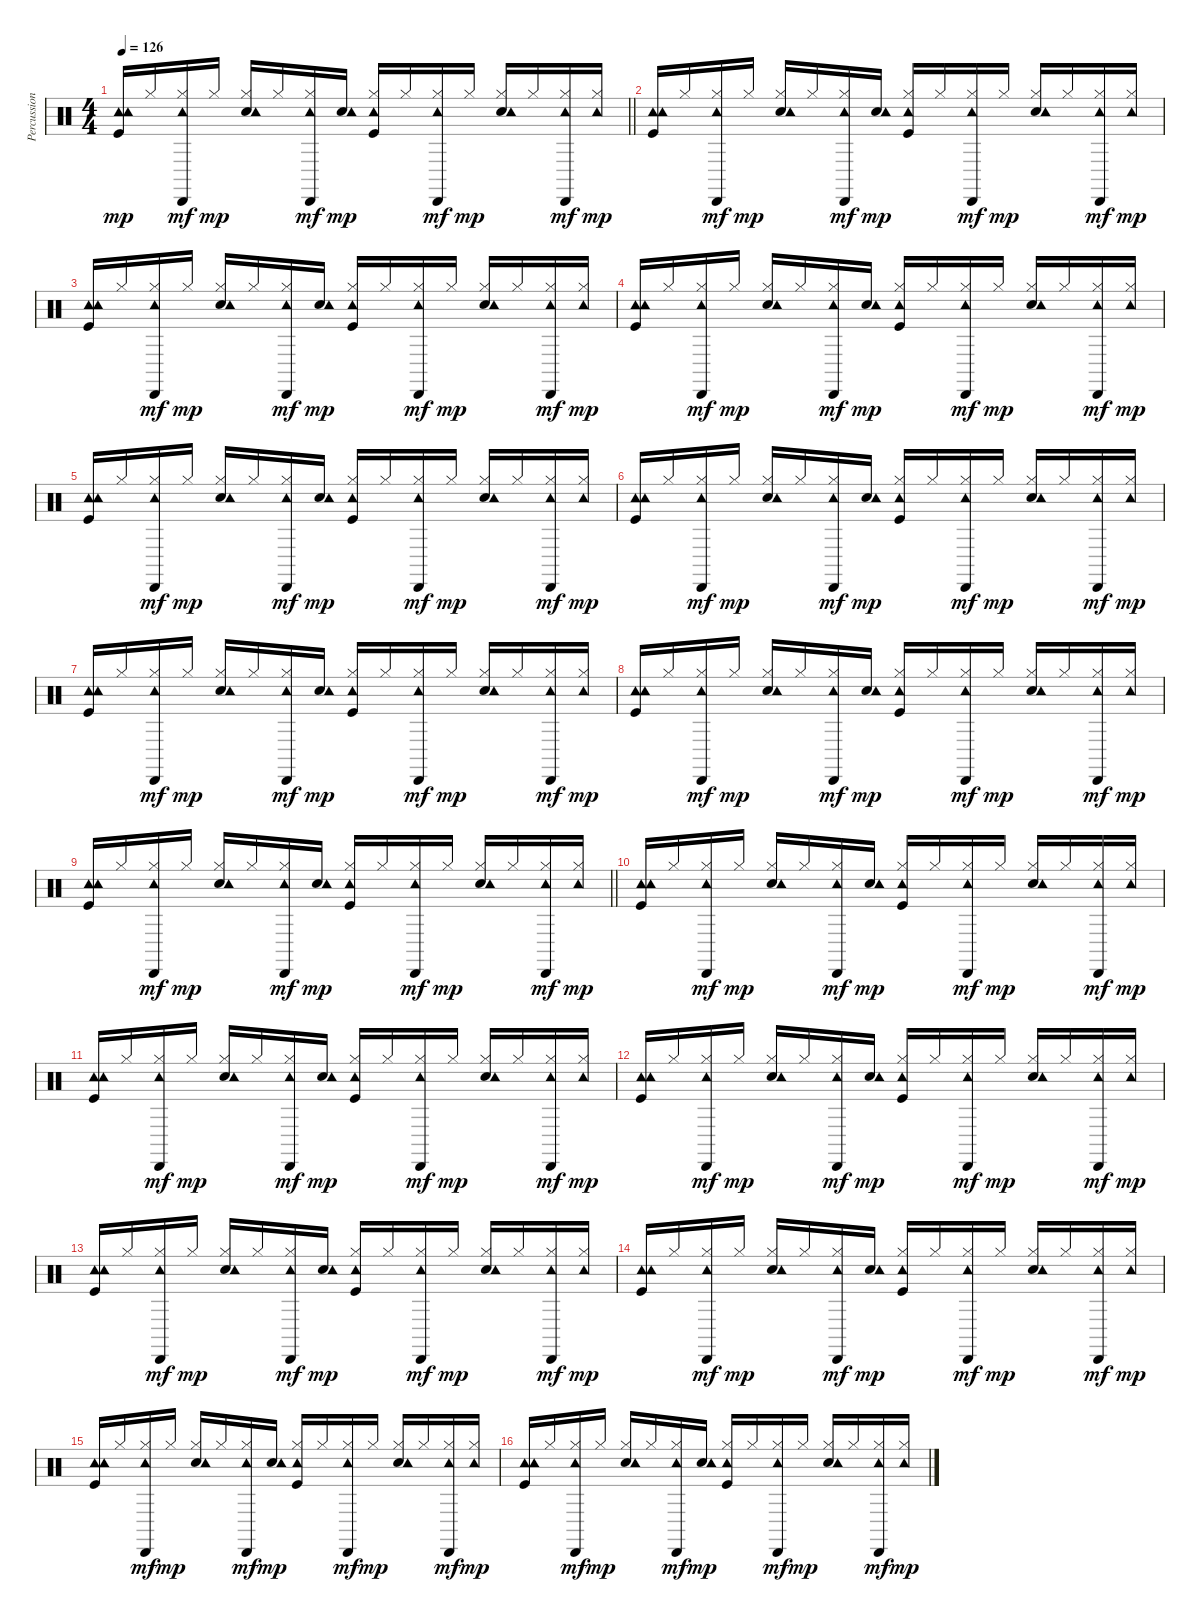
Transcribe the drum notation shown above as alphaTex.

\track ("Percussion" "Percussion") {instrument percussion}
\staff {score}
\articulation defaults
\ts (4 4)
\tempo 126
\clef neutral
\barLineRight lightlight
\ks c
("Kick (hit)" "Tambourine (hit)" "Tambourine (hit)").16{dy mp} "Hi-Hat (closed)".16 ("Hi-Hat (closed)" "Tambourine (hit)" "Cabasa (hit)").16{dy mf} "Hi-Hat (closed)".16{dy mp} ("Snare (hit) 2" "Hi-Hat (closed)" "Tambourine (hit)").16 "Hi-Hat (closed)".16 ("Hi-Hat (closed)" "Tambourine (hit)" "Cabasa (hit)").16{dy mf} ("Snare (hit) 2" "Tambourine (hit)").16{dy mp} ("Kick (hit)" "Hi-Hat (closed)" "Tambourine (hit)").16 "Hi-Hat (closed)".16 ("Hi-Hat (closed)" "Tambourine (hit)" "Cabasa (hit)").16{dy mf} "Hi-Hat (closed)".16{dy mp} ("Snare (hit) 2" "Hi-Hat (closed)" "Tambourine (hit)").16 "Hi-Hat (closed)".16 ("Hi-Hat (closed)" "Tambourine (hit)" "Cabasa (hit)").16{dy mf} ("Hi-Hat (closed)" "Tambourine (hit)").16{dy mp} |
("Kick (hit)" "Tambourine (hit)" "Tambourine (hit)").16 "Hi-Hat (closed)".16 ("Hi-Hat (closed)" "Tambourine (hit)" "Cabasa (hit)").16{dy mf} "Hi-Hat (closed)".16{dy mp} ("Snare (hit) 2" "Hi-Hat (closed)" "Tambourine (hit)").16 "Hi-Hat (closed)".16 ("Hi-Hat (closed)" "Tambourine (hit)" "Cabasa (hit)").16{dy mf} ("Snare (hit) 2" "Tambourine (hit)").16{dy mp} ("Kick (hit)" "Hi-Hat (closed)" "Tambourine (hit)").16 "Hi-Hat (closed)".16 ("Hi-Hat (closed)" "Tambourine (hit)" "Cabasa (hit)").16{dy mf} "Hi-Hat (closed)".16{dy mp} ("Snare (hit) 2" "Hi-Hat (closed)" "Tambourine (hit)").16 "Hi-Hat (closed)".16 ("Hi-Hat (closed)" "Tambourine (hit)" "Cabasa (hit)").16{dy mf} ("Hi-Hat (closed)" "Tambourine (hit)").16{dy mp} |
("Kick (hit)" "Tambourine (hit)" "Tambourine (hit)").16 "Hi-Hat (closed)".16 ("Hi-Hat (closed)" "Tambourine (hit)" "Cabasa (hit)").16{dy mf} "Hi-Hat (closed)".16{dy mp} ("Snare (hit) 2" "Hi-Hat (closed)" "Tambourine (hit)").16 "Hi-Hat (closed)".16 ("Hi-Hat (closed)" "Tambourine (hit)" "Cabasa (hit)").16{dy mf} ("Snare (hit) 2" "Tambourine (hit)").16{dy mp} ("Kick (hit)" "Hi-Hat (closed)" "Tambourine (hit)").16 "Hi-Hat (closed)".16 ("Hi-Hat (closed)" "Tambourine (hit)" "Cabasa (hit)").16{dy mf} "Hi-Hat (closed)".16{dy mp} ("Snare (hit) 2" "Hi-Hat (closed)" "Tambourine (hit)").16 "Hi-Hat (closed)".16 ("Hi-Hat (closed)" "Tambourine (hit)" "Cabasa (hit)").16{dy mf} ("Hi-Hat (closed)" "Tambourine (hit)").16{dy mp} |
("Kick (hit)" "Tambourine (hit)" "Tambourine (hit)").16 "Hi-Hat (closed)".16 ("Hi-Hat (closed)" "Tambourine (hit)" "Cabasa (hit)").16{dy mf} "Hi-Hat (closed)".16{dy mp} ("Snare (hit) 2" "Hi-Hat (closed)" "Tambourine (hit)").16 "Hi-Hat (closed)".16 ("Hi-Hat (closed)" "Tambourine (hit)" "Cabasa (hit)").16{dy mf} ("Snare (hit) 2" "Tambourine (hit)").16{dy mp} ("Kick (hit)" "Hi-Hat (closed)" "Tambourine (hit)").16 "Hi-Hat (closed)".16 ("Hi-Hat (closed)" "Tambourine (hit)" "Cabasa (hit)").16{dy mf} "Hi-Hat (closed)".16{dy mp} ("Snare (hit) 2" "Hi-Hat (closed)" "Tambourine (hit)").16 "Hi-Hat (closed)".16 ("Hi-Hat (closed)" "Tambourine (hit)" "Cabasa (hit)").16{dy mf} ("Hi-Hat (closed)" "Tambourine (hit)").16{dy mp} |
("Kick (hit)" "Tambourine (hit)" "Tambourine (hit)").16 "Hi-Hat (closed)".16 ("Hi-Hat (closed)" "Tambourine (hit)" "Cabasa (hit)").16{dy mf} "Hi-Hat (closed)".16{dy mp} ("Snare (hit) 2" "Hi-Hat (closed)" "Tambourine (hit)").16 "Hi-Hat (closed)".16 ("Hi-Hat (closed)" "Tambourine (hit)" "Cabasa (hit)").16{dy mf} ("Snare (hit) 2" "Tambourine (hit)").16{dy mp} ("Kick (hit)" "Hi-Hat (closed)" "Tambourine (hit)").16 "Hi-Hat (closed)".16 ("Hi-Hat (closed)" "Tambourine (hit)" "Cabasa (hit)").16{dy mf} "Hi-Hat (closed)".16{dy mp} ("Snare (hit) 2" "Hi-Hat (closed)" "Tambourine (hit)").16 "Hi-Hat (closed)".16 ("Hi-Hat (closed)" "Tambourine (hit)" "Cabasa (hit)").16{dy mf} ("Hi-Hat (closed)" "Tambourine (hit)").16{dy mp} |
("Kick (hit)" "Tambourine (hit)" "Tambourine (hit)").16 "Hi-Hat (closed)".16 ("Hi-Hat (closed)" "Tambourine (hit)" "Cabasa (hit)").16{dy mf} "Hi-Hat (closed)".16{dy mp} ("Snare (hit) 2" "Hi-Hat (closed)" "Tambourine (hit)").16 "Hi-Hat (closed)".16 ("Hi-Hat (closed)" "Tambourine (hit)" "Cabasa (hit)").16{dy mf} ("Snare (hit) 2" "Tambourine (hit)").16{dy mp} ("Kick (hit)" "Hi-Hat (closed)" "Tambourine (hit)").16 "Hi-Hat (closed)".16 ("Hi-Hat (closed)" "Tambourine (hit)" "Cabasa (hit)").16{dy mf} "Hi-Hat (closed)".16{dy mp} ("Snare (hit) 2" "Hi-Hat (closed)" "Tambourine (hit)").16 "Hi-Hat (closed)".16 ("Hi-Hat (closed)" "Tambourine (hit)" "Cabasa (hit)").16{dy mf} ("Hi-Hat (closed)" "Tambourine (hit)").16{dy mp} |
("Kick (hit)" "Tambourine (hit)" "Tambourine (hit)").16 "Hi-Hat (closed)".16 ("Hi-Hat (closed)" "Tambourine (hit)" "Cabasa (hit)").16{dy mf} "Hi-Hat (closed)".16{dy mp} ("Snare (hit) 2" "Hi-Hat (closed)" "Tambourine (hit)").16 "Hi-Hat (closed)".16 ("Hi-Hat (closed)" "Tambourine (hit)" "Cabasa (hit)").16{dy mf} ("Snare (hit) 2" "Tambourine (hit)").16{dy mp} ("Kick (hit)" "Hi-Hat (closed)" "Tambourine (hit)").16 "Hi-Hat (closed)".16 ("Hi-Hat (closed)" "Tambourine (hit)" "Cabasa (hit)").16{dy mf} "Hi-Hat (closed)".16{dy mp} ("Snare (hit) 2" "Hi-Hat (closed)" "Tambourine (hit)").16 "Hi-Hat (closed)".16 ("Hi-Hat (closed)" "Tambourine (hit)" "Cabasa (hit)").16{dy mf} ("Hi-Hat (closed)" "Tambourine (hit)").16{dy mp} |
("Kick (hit)" "Tambourine (hit)" "Tambourine (hit)").16 "Hi-Hat (closed)".16 ("Hi-Hat (closed)" "Tambourine (hit)" "Cabasa (hit)").16{dy mf} "Hi-Hat (closed)".16{dy mp} ("Snare (hit) 2" "Hi-Hat (closed)" "Tambourine (hit)").16 "Hi-Hat (closed)".16 ("Hi-Hat (closed)" "Tambourine (hit)" "Cabasa (hit)").16{dy mf} ("Snare (hit) 2" "Tambourine (hit)").16{dy mp} ("Kick (hit)" "Hi-Hat (closed)" "Tambourine (hit)").16 "Hi-Hat (closed)".16 ("Hi-Hat (closed)" "Tambourine (hit)" "Cabasa (hit)").16{dy mf} "Hi-Hat (closed)".16{dy mp} ("Snare (hit) 2" "Hi-Hat (closed)" "Tambourine (hit)").16 "Hi-Hat (closed)".16 ("Hi-Hat (closed)" "Tambourine (hit)" "Cabasa (hit)").16{dy mf} ("Hi-Hat (closed)" "Tambourine (hit)").16{dy mp} |
\barLineRight lightlight
("Kick (hit)" "Tambourine (hit)" "Tambourine (hit)").16 "Hi-Hat (closed)".16 ("Hi-Hat (closed)" "Tambourine (hit)" "Cabasa (hit)").16{dy mf} "Hi-Hat (closed)".16{dy mp} ("Snare (hit) 2" "Hi-Hat (closed)" "Tambourine (hit)").16 "Hi-Hat (closed)".16 ("Hi-Hat (closed)" "Tambourine (hit)" "Cabasa (hit)").16{dy mf} ("Snare (hit) 2" "Tambourine (hit)").16{dy mp} ("Kick (hit)" "Hi-Hat (closed)" "Tambourine (hit)").16 "Hi-Hat (closed)".16 ("Hi-Hat (closed)" "Tambourine (hit)" "Cabasa (hit)").16{dy mf} "Hi-Hat (closed)".16{dy mp} ("Snare (hit) 2" "Hi-Hat (closed)" "Tambourine (hit)").16 "Hi-Hat (closed)".16 ("Hi-Hat (closed)" "Tambourine (hit)" "Cabasa (hit)").16{dy mf} ("Hi-Hat (closed)" "Tambourine (hit)").16{dy mp} |
("Kick (hit)" "Tambourine (hit)" "Tambourine (hit)").16 "Hi-Hat (closed)".16 ("Hi-Hat (closed)" "Tambourine (hit)" "Cabasa (hit)").16{dy mf} "Hi-Hat (closed)".16{dy mp} ("Snare (hit) 2" "Hi-Hat (closed)" "Tambourine (hit)").16 "Hi-Hat (closed)".16 ("Hi-Hat (closed)" "Tambourine (hit)" "Cabasa (hit)").16{dy mf} ("Snare (hit) 2" "Tambourine (hit)").16{dy mp} ("Kick (hit)" "Hi-Hat (closed)" "Tambourine (hit)").16 "Hi-Hat (closed)".16 ("Hi-Hat (closed)" "Tambourine (hit)" "Cabasa (hit)").16{dy mf} "Hi-Hat (closed)".16{dy mp} ("Snare (hit) 2" "Hi-Hat (closed)" "Tambourine (hit)").16 "Hi-Hat (closed)".16 ("Hi-Hat (closed)" "Tambourine (hit)" "Cabasa (hit)").16{dy mf} ("Hi-Hat (closed)" "Tambourine (hit)").16{dy mp} |
("Kick (hit)" "Tambourine (hit)" "Tambourine (hit)").16 "Hi-Hat (closed)".16 ("Hi-Hat (closed)" "Tambourine (hit)" "Cabasa (hit)").16{dy mf} "Hi-Hat (closed)".16{dy mp} ("Snare (hit) 2" "Hi-Hat (closed)" "Tambourine (hit)").16 "Hi-Hat (closed)".16 ("Hi-Hat (closed)" "Tambourine (hit)" "Cabasa (hit)").16{dy mf} ("Snare (hit) 2" "Tambourine (hit)").16{dy mp} ("Kick (hit)" "Hi-Hat (closed)" "Tambourine (hit)").16 "Hi-Hat (closed)".16 ("Hi-Hat (closed)" "Tambourine (hit)" "Cabasa (hit)").16{dy mf} "Hi-Hat (closed)".16{dy mp} ("Snare (hit) 2" "Hi-Hat (closed)" "Tambourine (hit)").16 "Hi-Hat (closed)".16 ("Hi-Hat (closed)" "Tambourine (hit)" "Cabasa (hit)").16{dy mf} ("Hi-Hat (closed)" "Tambourine (hit)").16{dy mp} |
("Kick (hit)" "Tambourine (hit)" "Tambourine (hit)").16 "Hi-Hat (closed)".16 ("Hi-Hat (closed)" "Tambourine (hit)" "Cabasa (hit)").16{dy mf} "Hi-Hat (closed)".16{dy mp} ("Snare (hit) 2" "Hi-Hat (closed)" "Tambourine (hit)").16 "Hi-Hat (closed)".16 ("Hi-Hat (closed)" "Tambourine (hit)" "Cabasa (hit)").16{dy mf} ("Snare (hit) 2" "Tambourine (hit)").16{dy mp} ("Kick (hit)" "Hi-Hat (closed)" "Tambourine (hit)").16 "Hi-Hat (closed)".16 ("Hi-Hat (closed)" "Tambourine (hit)" "Cabasa (hit)").16{dy mf} "Hi-Hat (closed)".16{dy mp} ("Snare (hit) 2" "Hi-Hat (closed)" "Tambourine (hit)").16 "Hi-Hat (closed)".16 ("Hi-Hat (closed)" "Tambourine (hit)" "Cabasa (hit)").16{dy mf} ("Hi-Hat (closed)" "Tambourine (hit)").16{dy mp} |
("Kick (hit)" "Tambourine (hit)" "Tambourine (hit)").16 "Hi-Hat (closed)".16 ("Hi-Hat (closed)" "Tambourine (hit)" "Cabasa (hit)").16{dy mf} "Hi-Hat (closed)".16{dy mp} ("Snare (hit) 2" "Hi-Hat (closed)" "Tambourine (hit)").16 "Hi-Hat (closed)".16 ("Hi-Hat (closed)" "Tambourine (hit)" "Cabasa (hit)").16{dy mf} ("Snare (hit) 2" "Tambourine (hit)").16{dy mp} ("Kick (hit)" "Hi-Hat (closed)" "Tambourine (hit)").16 "Hi-Hat (closed)".16 ("Hi-Hat (closed)" "Tambourine (hit)" "Cabasa (hit)").16{dy mf} "Hi-Hat (closed)".16{dy mp} ("Snare (hit) 2" "Hi-Hat (closed)" "Tambourine (hit)").16 "Hi-Hat (closed)".16 ("Hi-Hat (closed)" "Tambourine (hit)" "Cabasa (hit)").16{dy mf} ("Hi-Hat (closed)" "Tambourine (hit)").16{dy mp} |
("Kick (hit)" "Tambourine (hit)" "Tambourine (hit)").16 "Hi-Hat (closed)".16 ("Hi-Hat (closed)" "Tambourine (hit)" "Cabasa (hit)").16{dy mf} "Hi-Hat (closed)".16{dy mp} ("Snare (hit) 2" "Hi-Hat (closed)" "Tambourine (hit)").16 "Hi-Hat (closed)".16 ("Hi-Hat (closed)" "Tambourine (hit)" "Cabasa (hit)").16{dy mf} ("Snare (hit) 2" "Tambourine (hit)").16{dy mp} ("Kick (hit)" "Hi-Hat (closed)" "Tambourine (hit)").16 "Hi-Hat (closed)".16 ("Hi-Hat (closed)" "Tambourine (hit)" "Cabasa (hit)").16{dy mf} "Hi-Hat (closed)".16{dy mp} ("Snare (hit) 2" "Hi-Hat (closed)" "Tambourine (hit)").16 "Hi-Hat (closed)".16 ("Hi-Hat (closed)" "Tambourine (hit)" "Cabasa (hit)").16{dy mf} ("Hi-Hat (closed)" "Tambourine (hit)").16{dy mp} |
("Kick (hit)" "Tambourine (hit)" "Tambourine (hit)").16 "Hi-Hat (closed)".16 ("Hi-Hat (closed)" "Tambourine (hit)" "Cabasa (hit)").16{dy mf} "Hi-Hat (closed)".16{dy mp} ("Snare (hit) 2" "Hi-Hat (closed)" "Tambourine (hit)").16 "Hi-Hat (closed)".16 ("Hi-Hat (closed)" "Tambourine (hit)" "Cabasa (hit)").16{dy mf} ("Snare (hit) 2" "Tambourine (hit)").16{dy mp} ("Kick (hit)" "Hi-Hat (closed)" "Tambourine (hit)").16 "Hi-Hat (closed)".16 ("Hi-Hat (closed)" "Tambourine (hit)" "Cabasa (hit)").16{dy mf} "Hi-Hat (closed)".16{dy mp} ("Snare (hit) 2" "Hi-Hat (closed)" "Tambourine (hit)").16 "Hi-Hat (closed)".16 ("Hi-Hat (closed)" "Tambourine (hit)" "Cabasa (hit)").16{dy mf} ("Hi-Hat (closed)" "Tambourine (hit)").16{dy mp} |
("Kick (hit)" "Tambourine (hit)" "Tambourine (hit)").16 "Hi-Hat (closed)".16 ("Hi-Hat (closed)" "Tambourine (hit)" "Cabasa (hit)").16{dy mf} "Hi-Hat (closed)".16{dy mp} ("Snare (hit) 2" "Hi-Hat (closed)" "Tambourine (hit)").16 "Hi-Hat (closed)".16 ("Hi-Hat (closed)" "Tambourine (hit)" "Cabasa (hit)").16{dy mf} ("Snare (hit) 2" "Tambourine (hit)").16{dy mp} ("Kick (hit)" "Hi-Hat (closed)" "Tambourine (hit)").16 "Hi-Hat (closed)".16 ("Hi-Hat (closed)" "Tambourine (hit)" "Cabasa (hit)").16{dy mf} "Hi-Hat (closed)".16{dy mp} ("Snare (hit) 2" "Hi-Hat (closed)" "Tambourine (hit)").16 "Hi-Hat (closed)".16 ("Hi-Hat (closed)" "Tambourine (hit)" "Cabasa (hit)").16{dy mf} ("Hi-Hat (closed)" "Tambourine (hit)").16{dy mp}
